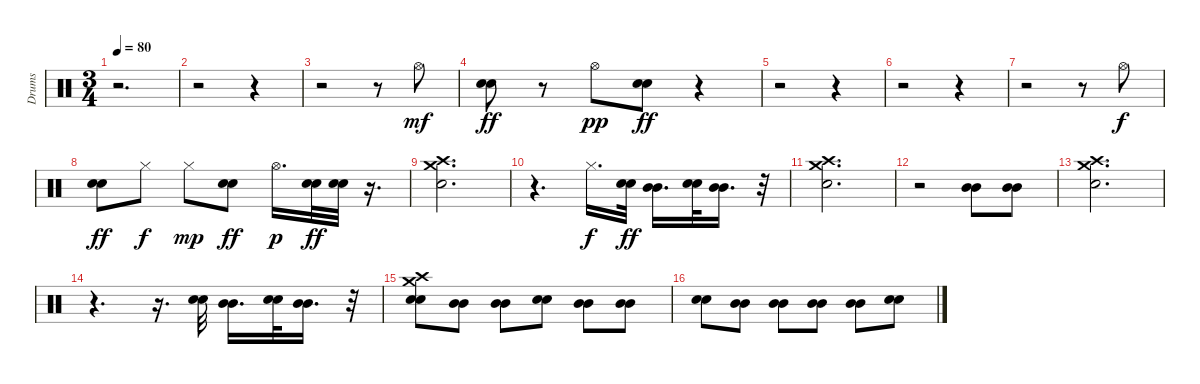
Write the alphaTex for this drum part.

\track ("Drums" "Drums") {instrument percussion}
\staff {score}
\articulation defaults
\ts (3 4)
\tempo 80
\clef neutral
\ks c
r.2{d dy ff volume 13} |
r.2 r.4 |
r.2 r.8 "Hi-Hat (open)".8{dy mf} |
("Electric Snare (hit)" "Electric Snare (hit)").8{bd 120 dy ff} r.8 "Hi-Hat (open)".8{dy pp} ("Electric Snare (hit)" "Electric Snare (hit)").8{bd 120 dy ff} r.4 |
r.2 r.4 |
r.2 r.4 |
r.2 r.8 "Hi-Hat (open)".8{dy f} |
("Electric Snare (hit)" "Electric Snare (hit)").8{bd 120 dy ff} "Hi-Hat (closed)".8{dy f} "Hi-Hat (closed)".8{dy mp} ("Electric Snare (hit)" "Electric Snare (hit)").8{bd 120 dy ff} "Hi-Hat (open)".16{d dy p} ("Electric Snare (hit)" "Electric Snare (hit)").32{dy ff} ("Snare (hit) 2" "Electric Snare (hit)").32 r.16{d} |
("Crash high (hit)" "Crash medium (hit)" "Snare (hit) 2").2{d} |
r.4{d} "Hi-Hat (closed)".16{d dy f} ("Snare (hit) 2" "Electric Snare (hit)").32{dy ff} ("Mid Tom (hit)" "Mid Tom (hit)").16{d} ("Snare (hit) 2" "Electric Snare (hit)").32 ("Mid Tom (hit)" "Mid Tom (hit)").16{d} r.32 |
("Crash high (hit)" "Crash medium (hit)" "Snare (hit) 2").2{d} |
r.2 ("Mid Tom (hit)" "Mid Tom (hit)").8 ("Mid Tom (hit)" "Mid Tom (hit)").8 |
("Crash high (hit)" "Crash medium (hit)" "Snare (hit) 2").2{d} |
r.4{d} r.16{d} ("Snare (hit) 2" "Electric Snare (hit)").32 ("Mid Tom (hit)" "Mid Tom (hit)").16{d} ("Snare (hit) 2" "Electric Snare (hit)").32 ("Mid Tom (hit)" "Mid Tom (hit)").16{d} r.32 |
("Crash high (hit)" "Crash medium (hit)" "Snare (hit) 2" "Snare (hit) 2").8 ("Mid Tom (hit)" "Mid Tom (hit)").8 ("Mid Tom (hit)" "Mid Tom (hit)").8{bd 120} ("Snare (hit) 2" "Snare (hit) 2").8 ("Mid Tom (hit)" "Mid Tom (hit)").8 ("Mid Tom (hit)" "Mid Tom (hit)").8{bd 120} |
("Snare (hit) 2" "Snare (hit) 2").8 ("Mid Tom (hit)" "Mid Tom (hit)").8{bd 120} ("Mid Tom (hit)" "Mid Tom (hit)").8{bd 120} ("Mid Tom (hit)" "Mid Tom (hit)").8 ("Mid Tom (hit)" "Mid Tom (hit)").8 ("Snare (hit) 2" "Snare (hit) 2").8{bd 120}
